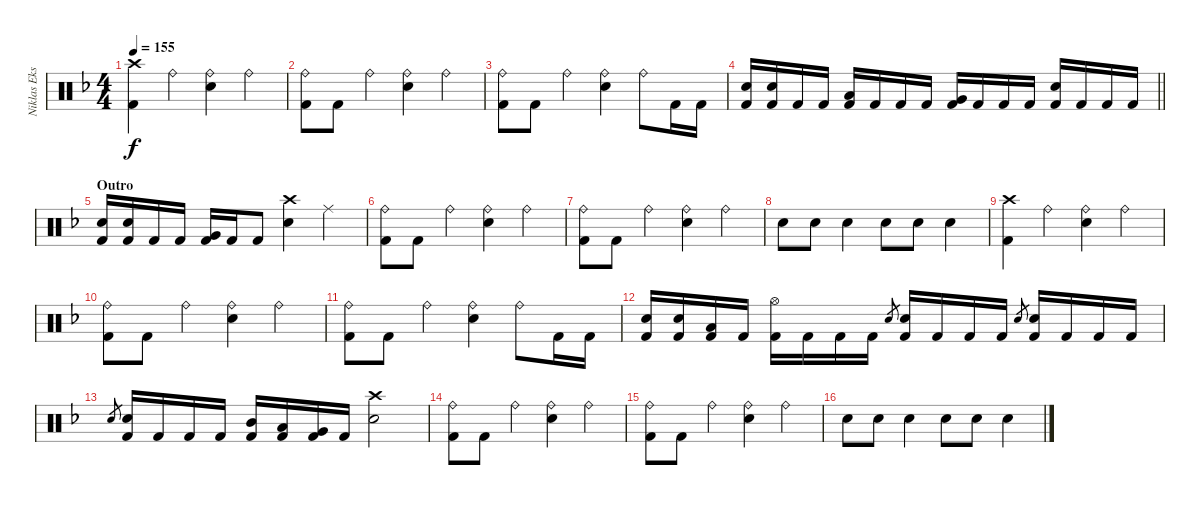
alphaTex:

\track ("Niklas Ekstrand" "Niklas Eks") {instrument percussion}
\staff {score}
\articulation defaults
\ts (4 4)
\tempo 155
\clef neutral
\ks dminor
("Crash high (hit)" "Kick (hit) 2").4{dy f} "Ride (bell)".4 ("Ride (bell)" "Snare (hit) 2").4 "Ride (bell)".4 |
("Ride (bell)" "Kick (hit) 2").8 "Kick (hit) 2".8 "Ride (bell)".4 ("Ride (bell)" "Snare (hit) 2").4 "Ride (bell)".4 |
("Ride (bell)" "Kick (hit) 2").8 "Kick (hit) 2".8 "Ride (bell)".4 ("Ride (bell)" "Snare (hit) 2").4 "Ride (bell)".8 "Kick (hit) 2".16 "Kick (hit) 2".16 |
\barLineRight lightlight
("Snare (hit) 2" "Kick (hit) 2").16 ("Snare (hit) 2" "Kick (hit) 2").16 "Kick (hit) 2".16 "Kick (hit) 2".16 ("Low Tom (hit)" "Kick (hit) 2").16 "Kick (hit) 2".16 "Kick (hit) 2".16 "Kick (hit) 2".16 ("Very Low Tom (hit)" "Kick (hit) 2").16 "Kick (hit) 2".16 "Kick (hit) 2".16 "Kick (hit) 2".16 ("Snare (hit) 2" "Kick (hit) 2").16 "Kick (hit) 2".16 "Kick (hit) 2".16 "Kick (hit) 2".16 |
\section ("" "Outro")
("Snare (hit) 2" "Kick (hit) 2").16 ("Snare (hit) 2" "Kick (hit) 2").16 "Kick (hit) 2".16 "Kick (hit) 2".16 ("Very Low Tom (hit)" "Kick (hit) 2").16 "Kick (hit) 2".16 "Kick (hit) 2".8 ("Crash high (hit)" "Snare (hit) 2").4 "Ride (middle)".4 |
("Ride (bell)" "Kick (hit) 2").8 "Kick (hit) 2".8 "Ride (bell)".4 ("Ride (bell)" "Snare (hit) 2").4 "Ride (bell)".4 |
("Ride (bell)" "Kick (hit) 2").8 "Kick (hit) 2".8 "Ride (bell)".4 ("Ride (bell)" "Snare (hit) 2").4 "Ride (bell)".4 |
"Snare (hit) 2".8 "Snare (hit) 2".8 "Snare (hit) 2".4 "Snare (hit) 2".8 "Snare (hit) 2".8 "Snare (hit) 2".4 |
("Crash high (hit)" "Kick (hit) 2").4 "Ride (bell)".4 ("Ride (bell)" "Snare (hit) 2").4 "Ride (bell)".4 |
("Ride (bell)" "Kick (hit) 2").8 "Kick (hit) 2".8 "Ride (bell)".4 ("Ride (bell)" "Snare (hit) 2").4 "Ride (bell)".4 |
("Ride (bell)" "Kick (hit) 2").8 "Kick (hit) 2".8 "Ride (bell)".4 ("Ride (bell)" "Snare (hit) 2").4 "Ride (bell)".8 "Kick (hit) 2".16 "Kick (hit) 2".16 |
("Snare (hit) 2" "Kick (hit) 2").16 ("Snare (hit) 2" "Kick (hit) 2").16 ("Low Tom (hit)" "Kick (hit) 2").16 "Kick (hit) 2".16 ("Hi-Hat (open)" "Kick (hit) 2").16 "Kick (hit) 2".16 "Kick (hit) 2".16 "Kick (hit) 2".16 "Snare (hit) 2".8{gr} ("Snare (hit) 2" "Kick (hit) 2").16 "Kick (hit) 2".16 "Kick (hit) 2".16 "Kick (hit) 2".16 "Snare (hit) 2".8{gr} ("Snare (hit) 2" "Kick (hit) 2").16 "Kick (hit) 2".16 "Kick (hit) 2".16 "Kick (hit) 2".16 |
"Snare (hit) 2".8{gr} ("Snare (hit) 2" "Kick (hit) 2").16 "Kick (hit) 2".16 "Kick (hit) 2".16 "Kick (hit) 2".16 ("Mid Tom (hit)" "Kick (hit) 2").16 ("Low Tom (hit)" "Kick (hit) 2").16 ("Very Low Tom (hit)" "Kick (hit) 2").16 "Kick (hit) 2".16 ("Crash high (hit)" "Snare (hit) 2").2 |
("Ride (bell)" "Kick (hit) 2").8 "Kick (hit) 2".8 "Ride (bell)".4 ("Ride (bell)" "Snare (hit) 2").4 "Ride (bell)".4 |
("Ride (bell)" "Kick (hit) 2").8 "Kick (hit) 2".8 "Ride (bell)".4 ("Ride (bell)" "Snare (hit) 2").4 "Ride (bell)".4 |
"Snare (hit) 2".8 "Snare (hit) 2".8 "Snare (hit) 2".4 "Snare (hit) 2".8 "Snare (hit) 2".8 "Snare (hit) 2".4
